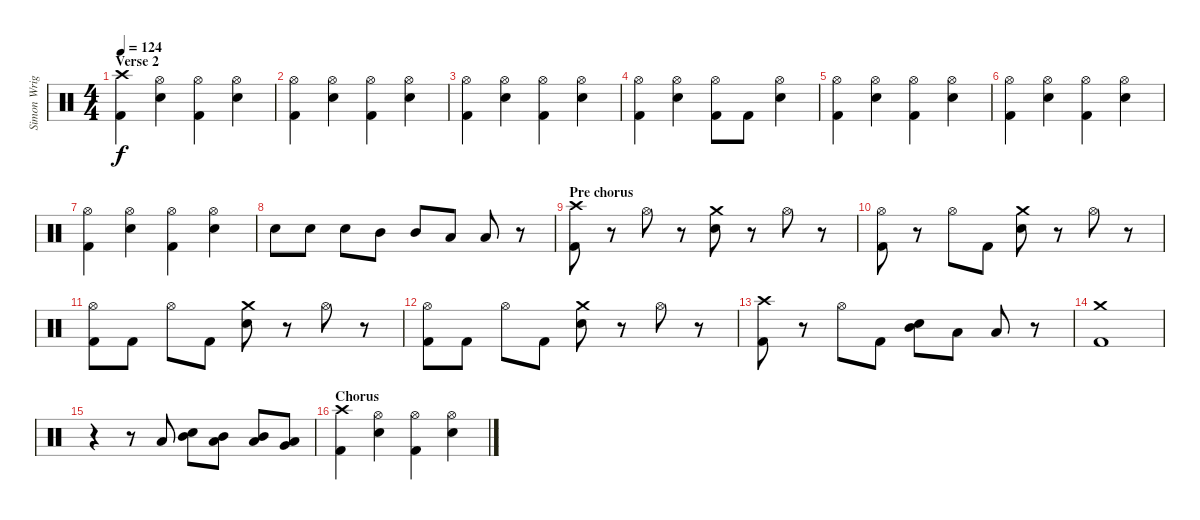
\track ("Simon Wright" "Simon Wrig") {instrument percussion}
\staff {score}
\articulation defaults
\ts (4 4)
\section ("" "Verse 2")
\tempo 124
\clef neutral
\ks c
("Crash high (hit)" "Kick (hit) 2").4{dy f} ("Hi-Hat (open)" "Electric Snare (hit)").4 ("Hi-Hat (open)" "Kick (hit) 2").4 ("Hi-Hat (open)" "Electric Snare (hit)").4 |
("Hi-Hat (open)" "Kick (hit) 2").4 ("Hi-Hat (open)" "Electric Snare (hit)").4 ("Hi-Hat (open)" "Kick (hit) 2").4 ("Hi-Hat (open)" "Electric Snare (hit)").4 |
("Hi-Hat (open)" "Kick (hit) 2").4 ("Hi-Hat (open)" "Electric Snare (hit)").4 ("Hi-Hat (open)" "Kick (hit) 2").4 ("Hi-Hat (open)" "Electric Snare (hit)").4 |
("Hi-Hat (open)" "Kick (hit) 2").4 ("Hi-Hat (open)" "Electric Snare (hit)").4 ("Hi-Hat (open)" "Kick (hit) 2").8 "Kick (hit) 2".8 ("Hi-Hat (open)" "Electric Snare (hit)").4 |
("Hi-Hat (open)" "Kick (hit) 2").4 ("Hi-Hat (open)" "Electric Snare (hit)").4 ("Hi-Hat (open)" "Kick (hit) 2").4 ("Hi-Hat (open)" "Electric Snare (hit)").4 |
("Hi-Hat (open)" "Kick (hit) 2").4 ("Hi-Hat (open)" "Electric Snare (hit)").4 ("Hi-Hat (open)" "Kick (hit) 2").4 ("Hi-Hat (open)" "Electric Snare (hit)").4 |
("Hi-Hat (open)" "Kick (hit) 2").4 ("Hi-Hat (open)" "Electric Snare (hit)").4 ("Hi-Hat (open)" "Kick (hit) 2").4 ("Hi-Hat (open)" "Electric Snare (hit)").4 |
"Electric Snare (hit)".8 "Electric Snare (hit)".8 "Electric Snare (hit)".8 "Mid Tom (hit)".8 "Mid Tom (hit)".8 "Low Tom (hit)".8 "Low Tom (hit)".8 r.8 |
\section ("" "Pre chorus")
("Crash high (hit)" "Kick (hit) 2").8 r.8 "Hi-Hat (open)".8 r.8 ("Crash medium (hit)" "Electric Snare (hit)").8 r.8 "Hi-Hat (open)".8 r.8 |
("Hi-Hat (open)" "Kick (hit) 2").8 r.8 "Hi-Hat (open)".8 "Kick (hit) 2".8 ("Crash medium (hit)" "Electric Snare (hit)").8 r.8 "Hi-Hat (open)".8 r.8 |
("Hi-Hat (open)" "Kick (hit) 2").8 "Kick (hit) 2".8 "Hi-Hat (open)".8 "Kick (hit) 2".8 ("Crash medium (hit)" "Electric Snare (hit)").8 r.8 "Hi-Hat (open)".8 r.8 |
("Hi-Hat (open)" "Kick (hit) 2").8 "Kick (hit) 2".8 "Hi-Hat (open)".8 "Kick (hit) 2".8 ("Crash medium (hit)" "Electric Snare (hit)").8 r.8 "Hi-Hat (open)".8 r.8 |
("Crash high (hit)" "Kick (hit) 2").8 r.8 "Hi-Hat (open)".8 "Kick (hit) 2".8 ("Mid Tom (hit)" "Electric Snare (hit)").8 "Low Tom (hit)".8 "Low Tom (hit)".8 r.8 |
("Crash medium (hit)" "Kick (hit) 2").1 |
r.4 r.8 "Low Tom (hit)".8 ("Mid Tom (hit)" "Electric Snare (hit)").8 ("Mid Tom (hit)" "Low Tom (hit)").8 ("Mid Tom (hit)" "Low Tom (hit)").8 ("Low Tom (hit)" "Very Low Tom (hit)").8 |
\section ("" "Chorus")
("Crash high (hit)" "Kick (hit) 2").4 ("Hi-Hat (open)" "Electric Snare (hit)").4 ("Hi-Hat (open)" "Kick (hit) 2").4 ("Hi-Hat (open)" "Electric Snare (hit)").4
